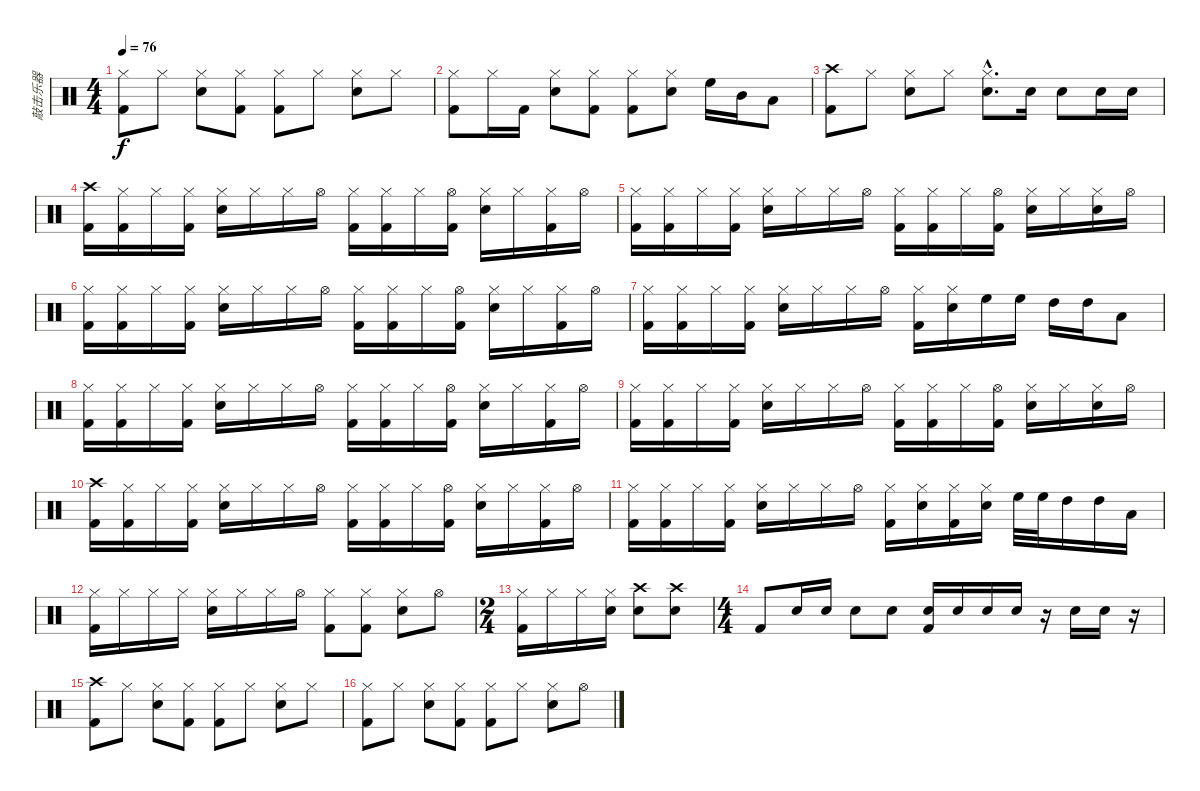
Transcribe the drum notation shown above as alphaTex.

\track ("敲击乐器" "敲击乐器") {instrument percussion}
\staff {score}
\articulation defaults
\ts (4 4)
\tempo 76
\clef neutral
\ks c
("Hi-Hat (closed)" "Kick (hit) 2").8{dy f} "Hi-Hat (closed)".8 ("Hi-Hat (closed)" "Snare (hit) 2").8 ("Hi-Hat (closed)" "Kick (hit) 2").8 ("Hi-Hat (closed)" "Kick (hit) 2").8 "Hi-Hat (closed)".8 ("Hi-Hat (closed)" "Snare (hit) 2").8 "Hi-Hat (closed)".8 |
("Hi-Hat (closed)" "Kick (hit) 2").8 "Hi-Hat (closed)".16 "Kick (hit) 2".16 ("Hi-Hat (closed)" "Snare (hit) 2").8 ("Hi-Hat (closed)" "Kick (hit) 2").8 ("Hi-Hat (closed)" "Kick (hit) 2").8 ("Hi-Hat (closed)" "Snare (hit) 2").8 "High Floor Tom (hit)".16 "Mid Tom (hit)".16 "Low Tom (hit)".8 |
("Crash high (hit)" "Kick (hit) 2").8 "Hi-Hat (closed)".8 ("Hi-Hat (closed)" "Snare (hit) 2").8 "Hi-Hat (closed)".8 ("Hi-Hat (closed)"{hac} "Snare (hit) 2"{hac}).8{d} "Snare (hit) 2".16 "Snare (hit) 2".8 "Snare (hit) 2".16 "Snare (hit) 2".16 |
("Crash high (hit)" "Kick (hit) 2").16 ("Hi-Hat (closed)" "Kick (hit) 2").16 "Hi-Hat (closed)".16 ("Hi-Hat (closed)" "Kick (hit) 2").16 ("Hi-Hat (closed)" "Snare (hit) 2").16 "Hi-Hat (closed)".16 "Hi-Hat (closed)".16 "Hi-Hat (open)".16 ("Hi-Hat (closed)" "Kick (hit) 2").16 ("Hi-Hat (closed)" "Kick (hit) 2").16 "Hi-Hat (closed)".16 ("Hi-Hat (open)" "Kick (hit) 2").16 ("Hi-Hat (closed)" "Snare (hit) 2").16 "Hi-Hat (closed)".16 ("Hi-Hat (closed)" "Kick (hit) 2").16 "Hi-Hat (open)".16 |
("Hi-Hat (closed)" "Kick (hit) 2").16 ("Hi-Hat (closed)" "Kick (hit) 2").16 "Hi-Hat (closed)".16 ("Hi-Hat (closed)" "Kick (hit) 2").16 ("Hi-Hat (closed)" "Snare (hit) 2").16 "Hi-Hat (closed)".16 "Hi-Hat (closed)".16 "Hi-Hat (open)".16 ("Hi-Hat (closed)" "Kick (hit) 2").16 ("Hi-Hat (closed)" "Kick (hit) 2").16 "Hi-Hat (closed)".16 ("Hi-Hat (open)" "Kick (hit) 2").16 ("Hi-Hat (closed)" "Snare (hit) 2").16 "Hi-Hat (closed)".16 ("Hi-Hat (closed)" "Snare (hit) 2").16 "Hi-Hat (open)".16 |
("Hi-Hat (closed)" "Kick (hit) 2").16 ("Hi-Hat (closed)" "Kick (hit) 2").16 "Hi-Hat (closed)".16 ("Hi-Hat (closed)" "Kick (hit) 2").16 ("Hi-Hat (closed)" "Snare (hit) 2").16 "Hi-Hat (closed)".16 "Hi-Hat (closed)".16 "Hi-Hat (open)".16 ("Hi-Hat (closed)" "Kick (hit) 2").16 ("Hi-Hat (closed)" "Kick (hit) 2").16 "Hi-Hat (closed)".16 ("Hi-Hat (open)" "Kick (hit) 2").16 ("Hi-Hat (closed)" "Snare (hit) 2").16 "Hi-Hat (closed)".16 ("Hi-Hat (closed)" "Kick (hit) 2").16 "Hi-Hat (open)".16 |
("Hi-Hat (closed)" "Kick (hit) 2").16 ("Hi-Hat (closed)" "Kick (hit) 2").16 "Hi-Hat (closed)".16 ("Hi-Hat (closed)" "Kick (hit) 2").16 ("Hi-Hat (closed)" "Snare (hit) 2").16 "Hi-Hat (closed)".16 "Hi-Hat (closed)".16 "Hi-Hat (open)".16 ("Hi-Hat (closed)" "Kick (hit) 2").16 ("Hi-Hat (closed)" "Snare (hit) 2").16 "High Floor Tom (hit)".16 "High Floor Tom (hit)".16 "High Tom (hit)".16 "High Tom (hit)".16 "Low Tom (hit)".8 |
("Hi-Hat (closed)" "Kick (hit) 2").16 ("Hi-Hat (closed)" "Kick (hit) 2").16 "Hi-Hat (closed)".16 ("Hi-Hat (closed)" "Kick (hit) 2").16 ("Hi-Hat (closed)" "Snare (hit) 2").16 "Hi-Hat (closed)".16 "Hi-Hat (closed)".16 "Hi-Hat (open)".16 ("Hi-Hat (closed)" "Kick (hit) 2").16 ("Hi-Hat (closed)" "Kick (hit) 2").16 "Hi-Hat (closed)".16 ("Hi-Hat (open)" "Kick (hit) 2").16 ("Hi-Hat (closed)" "Snare (hit) 2").16 "Hi-Hat (closed)".16 ("Hi-Hat (closed)" "Kick (hit) 2").16 "Hi-Hat (open)".16 |
("Hi-Hat (closed)" "Kick (hit) 2").16 ("Hi-Hat (closed)" "Kick (hit) 2").16 "Hi-Hat (closed)".16 ("Hi-Hat (closed)" "Kick (hit) 2").16 ("Hi-Hat (closed)" "Snare (hit) 2").16 "Hi-Hat (closed)".16 "Hi-Hat (closed)".16 "Hi-Hat (open)".16 ("Hi-Hat (closed)" "Kick (hit) 2").16 ("Hi-Hat (closed)" "Kick (hit) 2").16 "Hi-Hat (closed)".16 ("Hi-Hat (open)" "Kick (hit) 2").16 ("Hi-Hat (closed)" "Snare (hit) 2").16 "Hi-Hat (closed)".16 ("Hi-Hat (closed)" "Snare (hit) 2").16 "Hi-Hat (open)".16 |
("Crash high (hit)" "Kick (hit) 2").16 ("Hi-Hat (closed)" "Kick (hit) 2").16 "Hi-Hat (closed)".16 ("Hi-Hat (closed)" "Kick (hit) 2").16 ("Hi-Hat (closed)" "Snare (hit) 2").16 "Hi-Hat (closed)".16 "Hi-Hat (closed)".16 "Hi-Hat (open)".16 ("Hi-Hat (closed)" "Kick (hit) 2").16 ("Hi-Hat (closed)" "Kick (hit) 2").16 "Hi-Hat (closed)".16 ("Hi-Hat (open)" "Kick (hit) 2").16 ("Hi-Hat (closed)" "Snare (hit) 2").16 "Hi-Hat (closed)".16 ("Hi-Hat (closed)" "Kick (hit) 2").16 "Hi-Hat (open)".16 |
("Hi-Hat (closed)" "Kick (hit) 2").16 ("Hi-Hat (closed)" "Kick (hit) 2").16 "Hi-Hat (closed)".16 ("Hi-Hat (closed)" "Kick (hit) 2").16 ("Hi-Hat (closed)" "Snare (hit) 2").16 "Hi-Hat (closed)".16 "Hi-Hat (closed)".16 "Hi-Hat (open)".16 ("Hi-Hat (closed)" "Kick (hit) 2").16 ("Hi-Hat (closed)" "Snare (hit) 2").16 ("Hi-Hat (closed)" "Kick (hit) 2").16 ("Hi-Hat (closed)" "Snare (hit) 2").16 "High Floor Tom (hit)".32 "High Floor Tom (hit)".32 "High Tom (hit)".16 "High Tom (hit)".16 "Low Tom (hit)".16 |
("Hi-Hat (closed)" "Kick (hit) 2").16 "Hi-Hat (closed)".16 "Hi-Hat (closed)".16 "Hi-Hat (closed)".16 ("Hi-Hat (closed)" "Snare (hit) 2").16 "Hi-Hat (closed)".16 "Hi-Hat (closed)".16 "Hi-Hat (open)".16 ("Hi-Hat (closed)" "Kick (hit) 2").8 ("Hi-Hat (closed)" "Kick (hit) 2").8 ("Hi-Hat (closed)" "Snare (hit) 2").8 "Hi-Hat (open)".8 |
\ts (2 4)
("Hi-Hat (closed)" "Kick (hit) 2").16 "Hi-Hat (closed)".16 "Hi-Hat (closed)".16 ("Hi-Hat (closed)" "Snare (hit) 2").16 ("Crash high (hit)" "Snare (hit) 2").8 ("Crash high (hit)" "Snare (hit) 2").8 |
\ts (4 4)
"Kick (hit) 2".8 "Snare (hit) 2".16 "Snare (hit) 2".16 "Snare (hit) 2".8 "Snare (hit) 2".8 ("Snare (hit) 2" "Kick (hit) 2").16 "Snare (hit) 2".16 "Snare (hit) 2".16 "Snare (hit) 2".16 r.16 "Snare (hit) 2".16 "Snare (hit) 2".16 r.16 |
("Crash high (hit)" "Kick (hit) 2").8 "Hi-Hat (closed)".8 ("Hi-Hat (closed)" "Snare (hit) 2").8 ("Hi-Hat (closed)" "Kick (hit) 2").8 ("Hi-Hat (closed)" "Kick (hit) 2").8 "Hi-Hat (closed)".8 ("Hi-Hat (closed)" "Snare (hit) 2").8 "Hi-Hat (closed)".8 |
("Hi-Hat (closed)" "Kick (hit) 2").8 "Hi-Hat (closed)".8 ("Hi-Hat (closed)" "Snare (hit) 2").8 ("Hi-Hat (closed)" "Kick (hit) 2").8 ("Hi-Hat (closed)" "Kick (hit) 2").8 "Hi-Hat (closed)".8 ("Hi-Hat (closed)" "Snare (hit) 2").8 "Hi-Hat (open)".8
